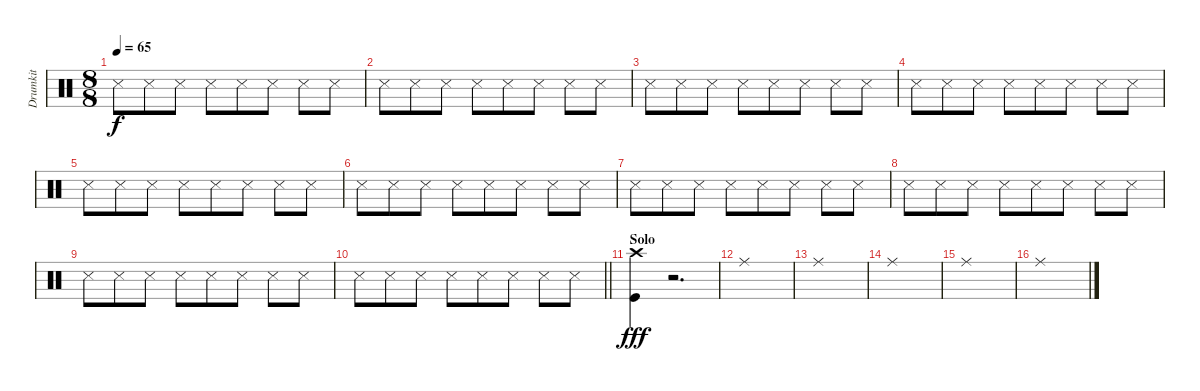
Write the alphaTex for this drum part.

\track ("Drumkit" "Drumkit") {instrument percussion}
\staff {score}
\articulation defaults
\ts (8 8)
\tempo 65
\clef neutral
\ks c "Snare (side stick) 3".8{dy f} "Snare (side stick) 3".8 "Snare (side stick) 3".8 "Snare (side stick) 3".8 "Snare (side stick) 3".8 "Snare (side stick) 3".8 "Snare (side stick) 3".8 "Snare (side stick) 3".8
|
"Snare (side stick) 3".8 "Snare (side stick) 3".8 "Snare (side stick) 3".8 "Snare (side stick) 3".8 "Snare (side stick) 3".8 "Snare (side stick) 3".8 "Snare (side stick) 3".8 "Snare (side stick) 3".8 |
"Snare (side stick) 3".8 "Snare (side stick) 3".8 "Snare (side stick) 3".8 "Snare (side stick) 3".8 "Snare (side stick) 3".8 "Snare (side stick) 3".8 "Snare (side stick) 3".8 "Snare (side stick) 3".8 |
"Snare (side stick) 3".8 "Snare (side stick) 3".8 "Snare (side stick) 3".8 "Snare (side stick) 3".8 "Snare (side stick) 3".8 "Snare (side stick) 3".8 "Snare (side stick) 3".8 "Snare (side stick) 3".8 |
"Snare (side stick) 3".8 "Snare (side stick) 3".8 "Snare (side stick) 3".8 "Snare (side stick) 3".8 "Snare (side stick) 3".8 "Snare (side stick) 3".8 "Snare (side stick) 3".8 "Snare (side stick) 3".8 |
"Snare (side stick) 3".8 "Snare (side stick) 3".8 "Snare (side stick) 3".8 "Snare (side stick) 3".8 "Snare (side stick) 3".8 "Snare (side stick) 3".8 "Snare (side stick) 3".8 "Snare (side stick) 3".8 |
"Snare (side stick) 3".8 "Snare (side stick) 3".8 "Snare (side stick) 3".8 "Snare (side stick) 3".8 "Snare (side stick) 3".8 "Snare (side stick) 3".8 "Snare (side stick) 3".8 "Snare (side stick) 3".8 |
"Snare (side stick) 3".8 "Snare (side stick) 3".8 "Snare (side stick) 3".8 "Snare (side stick) 3".8 "Snare (side stick) 3".8 "Snare (side stick) 3".8 "Snare (side stick) 3".8 "Snare (side stick) 3".8 |
"Snare (side stick) 3".8 "Snare (side stick) 3".8 "Snare (side stick) 3".8 "Snare (side stick) 3".8 "Snare (side stick) 3".8 "Snare (side stick) 3".8 "Snare (side stick) 3".8 "Snare (side stick) 3".8 |
\barLineRight lightlight "Snare (side stick) 3".8 "Snare (side stick) 3".8 "Snare (side stick) 3".8 "Snare (side stick) 3".8 "Snare (side stick) 3".8 "Snare (side stick) 3".8 "Snare (side stick) 3".8 "Snare (side stick) 3".8
|
\section ("" "Solo")
("Kick (hit)" "Crash high (hit)").4{dy fff} r.2{d} |
"Ride (middle)".1 |
"Ride (middle)".1 |
"Ride (middle)".1 |
"Ride (middle)".1 |
"Ride (middle)".1
